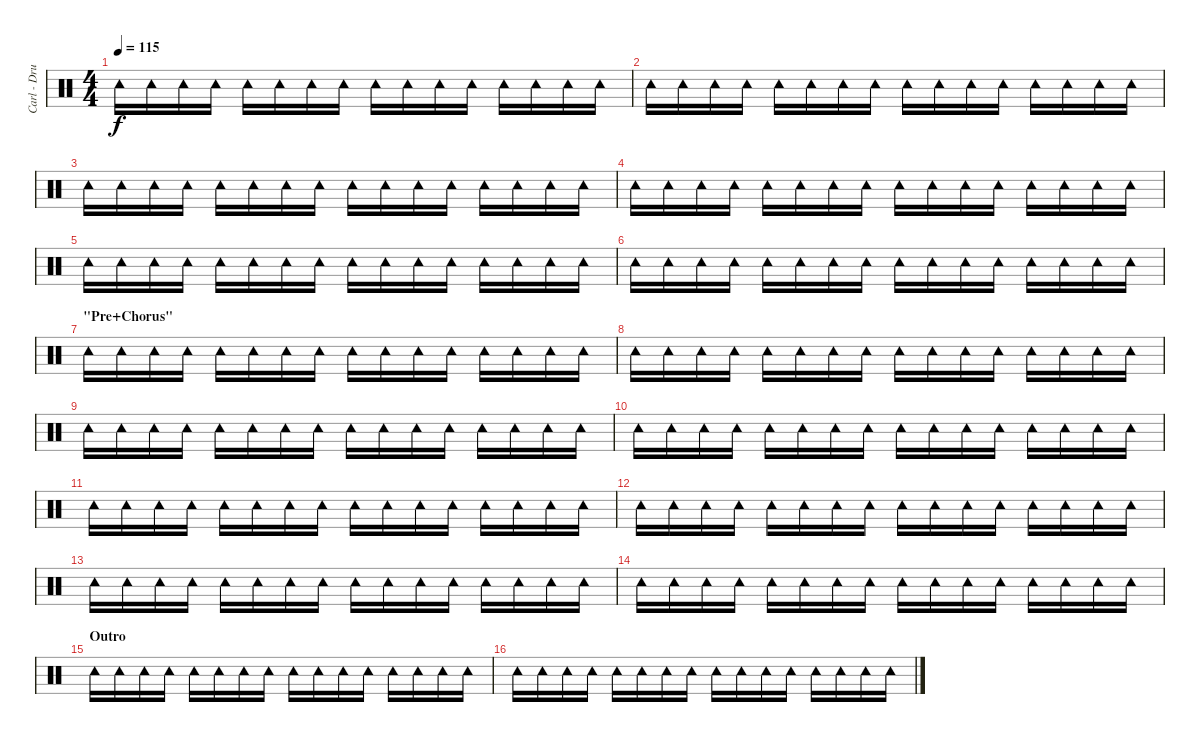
\track ("Carl - Drums" "Carl - Dru") {instrument percussion}
\staff {score}
\articulation defaults
\ts (4 4)
\tempo 115
\clef neutral
\ks c "Tambourine (hit)".16{dy f} "Tambourine (hit)".16 "Tambourine (hit)".16 "Tambourine (hit)".16 "Tambourine (hit)".16 "Tambourine (hit)".16 "Tambourine (hit)".16 "Tambourine (hit)".16 "Tambourine (hit)".16 "Tambourine (hit)".16 "Tambourine (hit)".16 "Tambourine (hit)".16 "Tambourine (hit)".16 "Tambourine (hit)".16 "Tambourine (hit)".16 "Tambourine (hit)".16
|
"Tambourine (hit)".16 "Tambourine (hit)".16 "Tambourine (hit)".16 "Tambourine (hit)".16 "Tambourine (hit)".16 "Tambourine (hit)".16 "Tambourine (hit)".16 "Tambourine (hit)".16 "Tambourine (hit)".16 "Tambourine (hit)".16 "Tambourine (hit)".16 "Tambourine (hit)".16 "Tambourine (hit)".16 "Tambourine (hit)".16 "Tambourine (hit)".16 "Tambourine (hit)".16 |
"Tambourine (hit)".16 "Tambourine (hit)".16 "Tambourine (hit)".16 "Tambourine (hit)".16 "Tambourine (hit)".16 "Tambourine (hit)".16 "Tambourine (hit)".16 "Tambourine (hit)".16 "Tambourine (hit)".16 "Tambourine (hit)".16 "Tambourine (hit)".16 "Tambourine (hit)".16 "Tambourine (hit)".16 "Tambourine (hit)".16 "Tambourine (hit)".16 "Tambourine (hit)".16 |
"Tambourine (hit)".16 "Tambourine (hit)".16 "Tambourine (hit)".16 "Tambourine (hit)".16 "Tambourine (hit)".16 "Tambourine (hit)".16 "Tambourine (hit)".16 "Tambourine (hit)".16 "Tambourine (hit)".16 "Tambourine (hit)".16 "Tambourine (hit)".16 "Tambourine (hit)".16 "Tambourine (hit)".16 "Tambourine (hit)".16 "Tambourine (hit)".16 "Tambourine (hit)".16 |
"Tambourine (hit)".16 "Tambourine (hit)".16 "Tambourine (hit)".16 "Tambourine (hit)".16 "Tambourine (hit)".16 "Tambourine (hit)".16 "Tambourine (hit)".16 "Tambourine (hit)".16 "Tambourine (hit)".16 "Tambourine (hit)".16 "Tambourine (hit)".16 "Tambourine (hit)".16 "Tambourine (hit)".16 "Tambourine (hit)".16 "Tambourine (hit)".16 "Tambourine (hit)".16 |
"Tambourine (hit)".16 "Tambourine (hit)".16 "Tambourine (hit)".16 "Tambourine (hit)".16 "Tambourine (hit)".16 "Tambourine (hit)".16 "Tambourine (hit)".16 "Tambourine (hit)".16 "Tambourine (hit)".16 "Tambourine (hit)".16 "Tambourine (hit)".16 "Tambourine (hit)".16 "Tambourine (hit)".16 "Tambourine (hit)".16 "Tambourine (hit)".16 "Tambourine (hit)".16 |
\section ("" "\"Pre+Chorus\"")
"Tambourine (hit)".16 "Tambourine (hit)".16 "Tambourine (hit)".16 "Tambourine (hit)".16 "Tambourine (hit)".16 "Tambourine (hit)".16 "Tambourine (hit)".16 "Tambourine (hit)".16 "Tambourine (hit)".16 "Tambourine (hit)".16 "Tambourine (hit)".16 "Tambourine (hit)".16 "Tambourine (hit)".16 "Tambourine (hit)".16 "Tambourine (hit)".16 "Tambourine (hit)".16 |
"Tambourine (hit)".16 "Tambourine (hit)".16 "Tambourine (hit)".16 "Tambourine (hit)".16 "Tambourine (hit)".16 "Tambourine (hit)".16 "Tambourine (hit)".16 "Tambourine (hit)".16 "Tambourine (hit)".16 "Tambourine (hit)".16 "Tambourine (hit)".16 "Tambourine (hit)".16 "Tambourine (hit)".16 "Tambourine (hit)".16 "Tambourine (hit)".16 "Tambourine (hit)".16 |
"Tambourine (hit)".16 "Tambourine (hit)".16 "Tambourine (hit)".16 "Tambourine (hit)".16 "Tambourine (hit)".16 "Tambourine (hit)".16 "Tambourine (hit)".16 "Tambourine (hit)".16 "Tambourine (hit)".16 "Tambourine (hit)".16 "Tambourine (hit)".16 "Tambourine (hit)".16 "Tambourine (hit)".16 "Tambourine (hit)".16 "Tambourine (hit)".16 "Tambourine (hit)".16 |
"Tambourine (hit)".16 "Tambourine (hit)".16 "Tambourine (hit)".16 "Tambourine (hit)".16 "Tambourine (hit)".16 "Tambourine (hit)".16 "Tambourine (hit)".16 "Tambourine (hit)".16 "Tambourine (hit)".16 "Tambourine (hit)".16 "Tambourine (hit)".16 "Tambourine (hit)".16 "Tambourine (hit)".16 "Tambourine (hit)".16 "Tambourine (hit)".16 "Tambourine (hit)".16 |
"Tambourine (hit)".16 "Tambourine (hit)".16 "Tambourine (hit)".16 "Tambourine (hit)".16 "Tambourine (hit)".16 "Tambourine (hit)".16 "Tambourine (hit)".16 "Tambourine (hit)".16 "Tambourine (hit)".16 "Tambourine (hit)".16 "Tambourine (hit)".16 "Tambourine (hit)".16 "Tambourine (hit)".16 "Tambourine (hit)".16 "Tambourine (hit)".16 "Tambourine (hit)".16 |
"Tambourine (hit)".16 "Tambourine (hit)".16 "Tambourine (hit)".16 "Tambourine (hit)".16 "Tambourine (hit)".16 "Tambourine (hit)".16 "Tambourine (hit)".16 "Tambourine (hit)".16 "Tambourine (hit)".16 "Tambourine (hit)".16 "Tambourine (hit)".16 "Tambourine (hit)".16 "Tambourine (hit)".16 "Tambourine (hit)".16 "Tambourine (hit)".16 "Tambourine (hit)".16 |
"Tambourine (hit)".16 "Tambourine (hit)".16 "Tambourine (hit)".16 "Tambourine (hit)".16 "Tambourine (hit)".16 "Tambourine (hit)".16 "Tambourine (hit)".16 "Tambourine (hit)".16 "Tambourine (hit)".16 "Tambourine (hit)".16 "Tambourine (hit)".16 "Tambourine (hit)".16 "Tambourine (hit)".16 "Tambourine (hit)".16 "Tambourine (hit)".16 "Tambourine (hit)".16 |
"Tambourine (hit)".16 "Tambourine (hit)".16 "Tambourine (hit)".16 "Tambourine (hit)".16 "Tambourine (hit)".16 "Tambourine (hit)".16 "Tambourine (hit)".16 "Tambourine (hit)".16 "Tambourine (hit)".16 "Tambourine (hit)".16 "Tambourine (hit)".16 "Tambourine (hit)".16 "Tambourine (hit)".16 "Tambourine (hit)".16 "Tambourine (hit)".16 "Tambourine (hit)".16 |
\section ("" "Outro")
"Tambourine (hit)".16 "Tambourine (hit)".16 "Tambourine (hit)".16 "Tambourine (hit)".16 "Tambourine (hit)".16 "Tambourine (hit)".16 "Tambourine (hit)".16 "Tambourine (hit)".16 "Tambourine (hit)".16 "Tambourine (hit)".16 "Tambourine (hit)".16 "Tambourine (hit)".16 "Tambourine (hit)".16 "Tambourine (hit)".16 "Tambourine (hit)".16 "Tambourine (hit)".16 |
"Tambourine (hit)".16 "Tambourine (hit)".16 "Tambourine (hit)".16 "Tambourine (hit)".16 "Tambourine (hit)".16 "Tambourine (hit)".16 "Tambourine (hit)".16 "Tambourine (hit)".16 "Tambourine (hit)".16 "Tambourine (hit)".16 "Tambourine (hit)".16 "Tambourine (hit)".16 "Tambourine (hit)".16 "Tambourine (hit)".16 "Tambourine (hit)".16 "Tambourine (hit)".16
